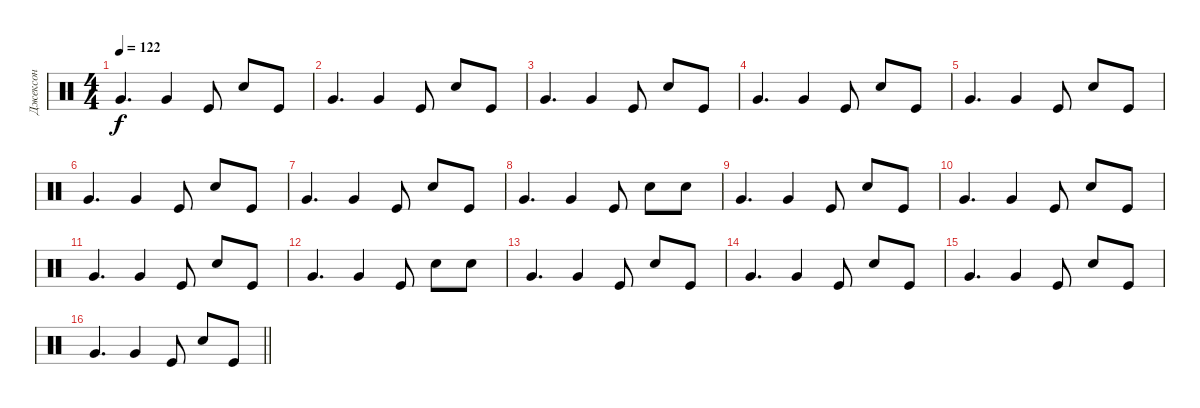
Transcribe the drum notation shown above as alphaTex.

\track ("Джексон" "Джексон") {instrument percussion}
\staff {score}
\articulation defaults
\ts (4 4)
\tempo 122
\clef neutral
\ks c "Very Low Tom (hit)".4{d dy f} "Very Low Tom (hit)".4 "Kick (hit)".8 "Snare (hit) 2".8 "Kick (hit)".8
|
"Very Low Tom (hit)".4{d} "Very Low Tom (hit)".4 "Kick (hit)".8 "Snare (hit) 2".8 "Kick (hit)".8 |
"Very Low Tom (hit)".4{d} "Very Low Tom (hit)".4 "Kick (hit)".8 "Snare (hit) 2".8 "Kick (hit)".8 |
"Very Low Tom (hit)".4{d} "Very Low Tom (hit)".4 "Kick (hit)".8 "Snare (hit) 2".8 "Kick (hit)".8 |
"Very Low Tom (hit)".4{d} "Very Low Tom (hit)".4 "Kick (hit)".8 "Snare (hit) 2".8 "Kick (hit)".8 |
"Very Low Tom (hit)".4{d} "Very Low Tom (hit)".4 "Kick (hit)".8 "Snare (hit) 2".8 "Kick (hit)".8 |
"Very Low Tom (hit)".4{d} "Very Low Tom (hit)".4 "Kick (hit)".8 "Snare (hit) 2".8 "Kick (hit)".8 |
"Very Low Tom (hit)".4{d} "Very Low Tom (hit)".4 "Kick (hit)".8 "Snare (hit) 2".8 "Snare (hit) 2".8 |
"Very Low Tom (hit)".4{d} "Very Low Tom (hit)".4 "Kick (hit)".8 "Snare (hit) 2".8 "Kick (hit)".8 |
"Very Low Tom (hit)".4{d} "Very Low Tom (hit)".4 "Kick (hit)".8 "Snare (hit) 2".8 "Kick (hit)".8 |
"Very Low Tom (hit)".4{d} "Very Low Tom (hit)".4 "Kick (hit)".8 "Snare (hit) 2".8 "Kick (hit)".8 |
"Very Low Tom (hit)".4{d} "Very Low Tom (hit)".4 "Kick (hit)".8 "Snare (hit) 2".8 "Snare (hit) 2".8 |
"Very Low Tom (hit)".4{d} "Very Low Tom (hit)".4 "Kick (hit)".8 "Snare (hit) 2".8 "Kick (hit)".8 |
"Very Low Tom (hit)".4{d} "Very Low Tom (hit)".4 "Kick (hit)".8 "Snare (hit) 2".8 "Kick (hit)".8 |
"Very Low Tom (hit)".4{d} "Very Low Tom (hit)".4 "Kick (hit)".8 "Snare (hit) 2".8 "Kick (hit)".8 |
\barLineRight lightlight "Very Low Tom (hit)".4{d} "Very Low Tom (hit)".4 "Kick (hit)".8 "Snare (hit) 2".8 "Kick (hit)".8
